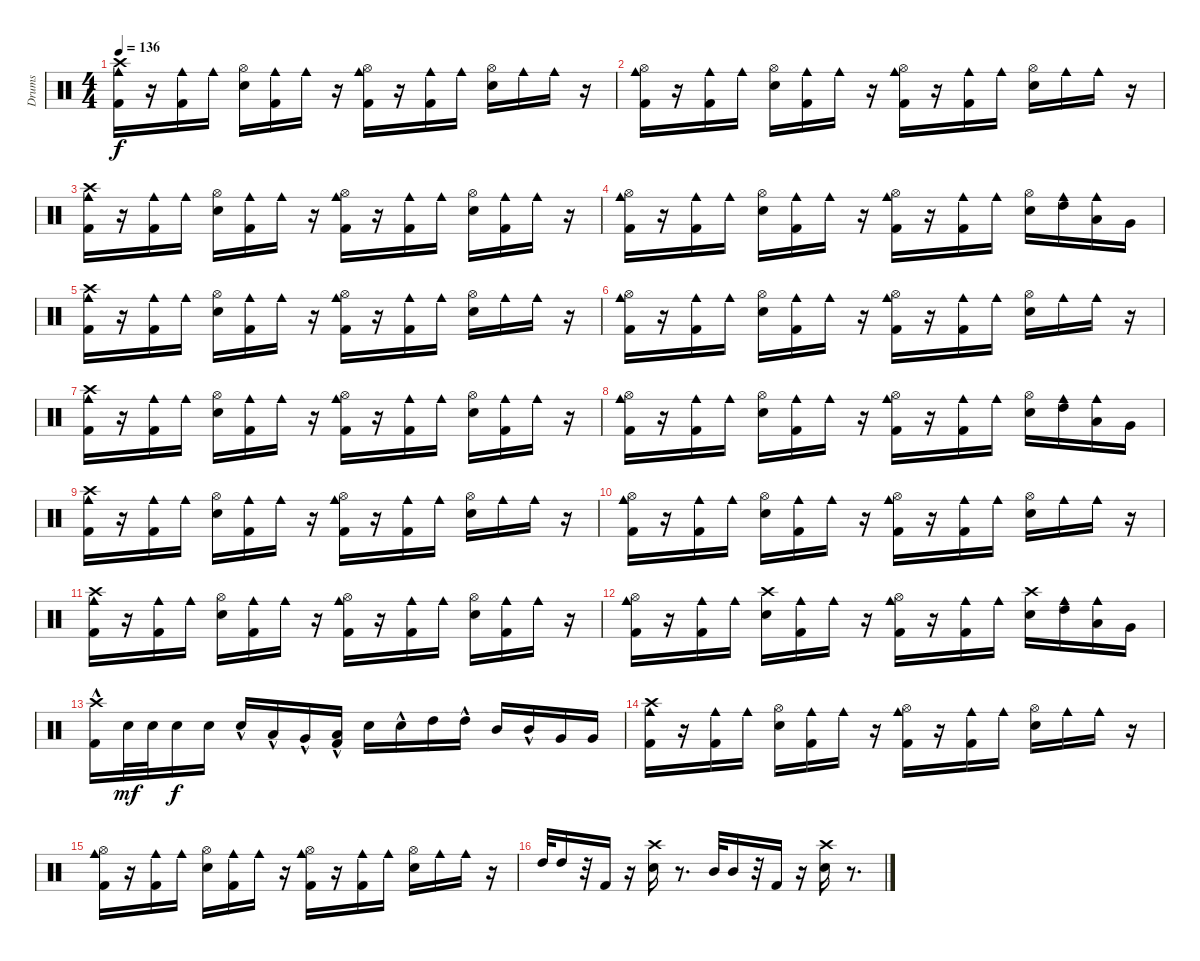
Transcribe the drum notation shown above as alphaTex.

\track ("Drums" "Drums") {instrument percussion}
\staff {score}
\articulation defaults
\ts (4 4)
\tempo 136
\clef neutral
\ks c
("Cowbell medium (hit)" "Kick (hit) 2" "Crash high (hit)").16{dy f} r.16 ("Cowbell medium (hit)" "Kick (hit) 2").16 "Cowbell medium (hit)".16 ("Metronome (bell)" "Hi-Hat (open)").16 ("Cowbell medium (hit)" "Kick (hit) 2").16 "Cowbell medium (hit)".16 r.16 ("Kick (hit) 2" "Cowbell medium (hit)" "Hi-Hat (open)").16 r.16 ("Cowbell medium (hit)" "Kick (hit) 2").16 "Cowbell medium (hit)".16 ("Metronome (bell)" "Hi-Hat (open)").16 "Cowbell medium (hit)".16 "Cowbell medium (hit)".16 r.16 |
("Kick (hit) 2" "Cowbell medium (hit)" "Hi-Hat (open)").16 r.16 ("Kick (hit) 2" "Cowbell medium (hit)").16 "Cowbell medium (hit)".16 ("Metronome (bell)" "Hi-Hat (open)").16 ("Cowbell medium (hit)" "Kick (hit) 2").16 "Cowbell medium (hit)".16 r.16 ("Kick (hit) 2" "Cowbell medium (hit)" "Hi-Hat (open)").16 r.16 ("Kick (hit) 2" "Cowbell medium (hit)").16 "Cowbell medium (hit)".16 ("Metronome (bell)" "Hi-Hat (open)").16 "Cowbell medium (hit)".16 "Cowbell medium (hit)".16 r.16 |
("Cowbell medium (hit)" "Kick (hit) 2" "Crash high (hit)").16 r.16 ("Cowbell medium (hit)" "Kick (hit) 2").16 "Cowbell medium (hit)".16 ("Metronome (bell)" "Hi-Hat (open)").16 ("Cowbell medium (hit)" "Kick (hit) 2").16 "Cowbell medium (hit)".16 r.16 ("Kick (hit) 2" "Cowbell medium (hit)" "Hi-Hat (open)").16 r.16 ("Cowbell medium (hit)" "Kick (hit) 2").16 "Cowbell medium (hit)".16 ("Metronome (bell)" "Hi-Hat (open)").16 ("Cowbell medium (hit)" "Kick (hit) 2").16 "Cowbell medium (hit)".16 r.16 |
("Kick (hit) 2" "Cowbell medium (hit)" "Hi-Hat (open)").16 r.16 ("Kick (hit) 2" "Cowbell medium (hit)").16 "Cowbell medium (hit)".16 ("Metronome (bell)" "Hi-Hat (open)").16 ("Cowbell medium (hit)" "Kick (hit) 2").16 "Cowbell medium (hit)".16 r.16 ("Kick (hit) 2" "Cowbell medium (hit)" "Hi-Hat (open)").16 r.16 ("Kick (hit) 2" "Cowbell medium (hit)").16 "Cowbell medium (hit)".16 ("Metronome (bell)" "Hi-Hat (open)").16 ("Cowbell medium (hit)" "High Tom (hit)").16 ("Cowbell medium (hit)" "Low Tom (hit)").16 "Very Low Tom (hit)".16 |
("Cowbell medium (hit)" "Kick (hit) 2" "Crash high (hit)").16 r.16 ("Cowbell medium (hit)" "Kick (hit) 2").16 "Cowbell medium (hit)".16 ("Metronome (bell)" "Hi-Hat (open)").16 ("Cowbell medium (hit)" "Kick (hit) 2").16 "Cowbell medium (hit)".16 r.16 ("Kick (hit) 2" "Cowbell medium (hit)" "Hi-Hat (open)").16 r.16 ("Cowbell medium (hit)" "Kick (hit) 2").16 "Cowbell medium (hit)".16 ("Metronome (bell)" "Hi-Hat (open)").16 "Cowbell medium (hit)".16 "Cowbell medium (hit)".16 r.16 |
("Kick (hit) 2" "Cowbell medium (hit)" "Hi-Hat (open)").16 r.16 ("Kick (hit) 2" "Cowbell medium (hit)").16 "Cowbell medium (hit)".16 ("Metronome (bell)" "Hi-Hat (open)").16 ("Cowbell medium (hit)" "Kick (hit) 2").16 "Cowbell medium (hit)".16 r.16 ("Kick (hit) 2" "Cowbell medium (hit)" "Hi-Hat (open)").16 r.16 ("Kick (hit) 2" "Cowbell medium (hit)").16 "Cowbell medium (hit)".16 ("Metronome (bell)" "Hi-Hat (open)").16 "Cowbell medium (hit)".16 "Cowbell medium (hit)".16 r.16 |
("Cowbell medium (hit)" "Kick (hit) 2" "Crash high (hit)").16 r.16 ("Cowbell medium (hit)" "Kick (hit) 2").16 "Cowbell medium (hit)".16 ("Metronome (bell)" "Hi-Hat (open)").16 ("Cowbell medium (hit)" "Kick (hit) 2").16 "Cowbell medium (hit)".16 r.16 ("Kick (hit) 2" "Cowbell medium (hit)" "Hi-Hat (open)").16 r.16 ("Cowbell medium (hit)" "Kick (hit) 2").16 "Cowbell medium (hit)".16 ("Metronome (bell)" "Hi-Hat (open)").16 ("Cowbell medium (hit)" "Kick (hit) 2").16 "Cowbell medium (hit)".16 r.16 |
("Kick (hit) 2" "Cowbell medium (hit)" "Hi-Hat (open)").16 r.16 ("Kick (hit) 2" "Cowbell medium (hit)").16 "Cowbell medium (hit)".16 ("Metronome (bell)" "Hi-Hat (open)").16 ("Cowbell medium (hit)" "Kick (hit) 2").16 "Cowbell medium (hit)".16 r.16 ("Kick (hit) 2" "Cowbell medium (hit)" "Hi-Hat (open)").16 r.16 ("Kick (hit) 2" "Cowbell medium (hit)").16 "Cowbell medium (hit)".16 ("Metronome (bell)" "Hi-Hat (open)").16 ("Cowbell medium (hit)" "High Tom (hit)").16 ("Cowbell medium (hit)" "Low Tom (hit)").16 "Very Low Tom (hit)".16 |
("Cowbell medium (hit)" "Kick (hit) 2" "Crash high (hit)").16 r.16 ("Cowbell medium (hit)" "Kick (hit) 2").16 "Cowbell medium (hit)".16 ("Metronome (bell)" "Hi-Hat (open)").16 ("Cowbell medium (hit)" "Kick (hit) 2").16 "Cowbell medium (hit)".16 r.16 ("Kick (hit) 2" "Cowbell medium (hit)" "Hi-Hat (open)").16 r.16 ("Cowbell medium (hit)" "Kick (hit) 2").16 "Cowbell medium (hit)".16 ("Metronome (bell)" "Hi-Hat (open)").16 "Cowbell medium (hit)".16 "Cowbell medium (hit)".16 r.16 |
("Kick (hit) 2" "Cowbell medium (hit)" "Hi-Hat (open)").16 r.16 ("Kick (hit) 2" "Cowbell medium (hit)").16 "Cowbell medium (hit)".16 ("Metronome (bell)" "Hi-Hat (open)").16 ("Cowbell medium (hit)" "Kick (hit) 2").16 "Cowbell medium (hit)".16 r.16 ("Kick (hit) 2" "Cowbell medium (hit)" "Hi-Hat (open)").16 r.16 ("Kick (hit) 2" "Cowbell medium (hit)").16 "Cowbell medium (hit)".16 ("Metronome (bell)" "Hi-Hat (open)").16 "Cowbell medium (hit)".16 "Cowbell medium (hit)".16 r.16 |
("Cowbell medium (hit)" "Kick (hit) 2" "Crash high (hit)").16 r.16 ("Cowbell medium (hit)" "Kick (hit) 2").16 "Cowbell medium (hit)".16 ("Metronome (bell)" "Hi-Hat (open)").16 ("Cowbell medium (hit)" "Kick (hit) 2").16 "Cowbell medium (hit)".16 r.16 ("Kick (hit) 2" "Cowbell medium (hit)" "Hi-Hat (open)").16 r.16 ("Cowbell medium (hit)" "Kick (hit) 2").16 "Cowbell medium (hit)".16 ("Metronome (bell)" "Hi-Hat (open)").16 ("Cowbell medium (hit)" "Kick (hit) 2").16 "Cowbell medium (hit)".16 r.16 |
("Kick (hit) 2" "Cowbell medium (hit)" "Hi-Hat (open)").16 r.16 ("Kick (hit) 2" "Cowbell medium (hit)").16 "Cowbell medium (hit)".16 ("Metronome (bell)" "Crash high (hit)").16 ("Cowbell medium (hit)" "Kick (hit) 2").16 "Cowbell medium (hit)".16 r.16 ("Kick (hit) 2" "Cowbell medium (hit)" "Hi-Hat (open)").16 r.16 ("Kick (hit) 2" "Cowbell medium (hit)").16 "Cowbell medium (hit)".16 ("Metronome (bell)" "Crash high (hit)").16 ("Cowbell medium (hit)" "High Tom (hit)").16 ("Cowbell medium (hit)" "Low Tom (hit)").16 "Very Low Tom (hit)".16 |
("Crash high (hit)"{hac} "Kick (hit) 2"{hac}).16 "Metronome (bell)".32{dy mf} "Metronome (bell)".32 "Metronome (bell)".16{dy f} "Metronome (bell)".16 "Metronome (bell)"{hac}.16 "Low Tom (hit)"{hac}.16 "Very Low Tom (hit)"{hac}.16 ("Kick (hit) 2"{hac} "Low Floor Tom (hit)"{hac}).16 "Metronome (bell)".16 "Metronome (bell)"{hac}.16 "High Tom (hit)".16 "High Tom (hit)"{hac}.16 "Mid Tom (hit)".16 "Mid Tom (hit)"{hac}.16 "Very Low Tom (hit)".16 "Very Low Tom (hit)".16 |
("Cowbell medium (hit)" "Kick (hit) 2" "Crash high (hit)").16 r.16 ("Cowbell medium (hit)" "Kick (hit) 2").16 "Cowbell medium (hit)".16 ("Metronome (bell)" "Hi-Hat (open)").16 ("Cowbell medium (hit)" "Kick (hit) 2").16 "Cowbell medium (hit)".16 r.16 ("Kick (hit) 2" "Cowbell medium (hit)" "Hi-Hat (open)").16 r.16 ("Cowbell medium (hit)" "Kick (hit) 2").16 "Cowbell medium (hit)".16 ("Metronome (bell)" "Hi-Hat (open)").16 "Cowbell medium (hit)".16 "Cowbell medium (hit)".16 r.16 |
("Kick (hit) 2" "Cowbell medium (hit)" "Hi-Hat (open)").16 r.16 ("Kick (hit) 2" "Cowbell medium (hit)").16 "Cowbell medium (hit)".16 ("Metronome (bell)" "Hi-Hat (open)").16 ("Cowbell medium (hit)" "Kick (hit) 2").16 "Cowbell medium (hit)".16 r.16 ("Kick (hit) 2" "Cowbell medium (hit)" "Hi-Hat (open)").16 r.16 ("Kick (hit) 2" "Cowbell medium (hit)").16 "Cowbell medium (hit)".16 ("Metronome (bell)" "Hi-Hat (open)").16 "Cowbell medium (hit)".16 "Cowbell medium (hit)".16 r.16 |
"High Tom (hit)".32 "High Tom (hit)".16 r.32 "Kick (hit) 2".16 r.16 ("Metronome (bell)" "Crash high (hit)").16 r.8{d} "Mid Tom (hit)".32 "Mid Tom (hit)".16 r.32 "Kick (hit) 2".16 r.16 ("Metronome (bell)" "Crash high (hit)").16 r.8{d}
